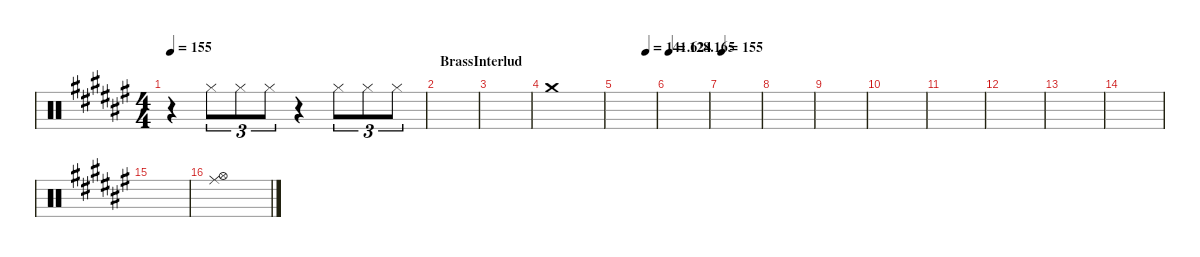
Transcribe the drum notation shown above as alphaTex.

\hideDynamics
\bracketExtendMode nobrackets
\singleTrackTrackNamePolicy hidden
\multiTrackTrackNamePolicy hidden
\otherSystemsTrackNameOrientation horizontal
\track ("Perc" "Drums") {instrument percussion}
\staff {score}
\articulation defaults
\ts (4 4)
\tempo 155
\clef neutral
\ks f#
r.4{dy mp beam Down} "Hi-Hat (closed)"{acc forcenatural}.8{tu (3 2) beam Down} "Hi-Hat (closed)"{acc forcenatural}.8{tu (3 2) beam Down} "Hi-Hat (closed)"{acc forcenatural}.8{tu (3 2) beam Down} r.4{beam Down} "Hi-Hat (closed)"{acc forcenatural}.8{tu (3 2) beam Down} "Hi-Hat (closed)"{acc forcenatural}.8{tu (3 2) beam Down} "Hi-Hat (closed)"{acc forcenatural}.8{tu (3 2) beam Down} |
\section ("" "BrassInterlud")
|
|
"Crash medium (hit)"{acc forcenatural}.1{dy mf beam Down} |
\tempo (141.624 0.75)
|
\tempo
128.165 |
\tempo (155 0.00625)
|
|
|
|
|
|
|
|
|
("Ride (middle)"{acc forcenatural} "Hi-Hat (open)"{acc forcenatural}).1{beam Down}
